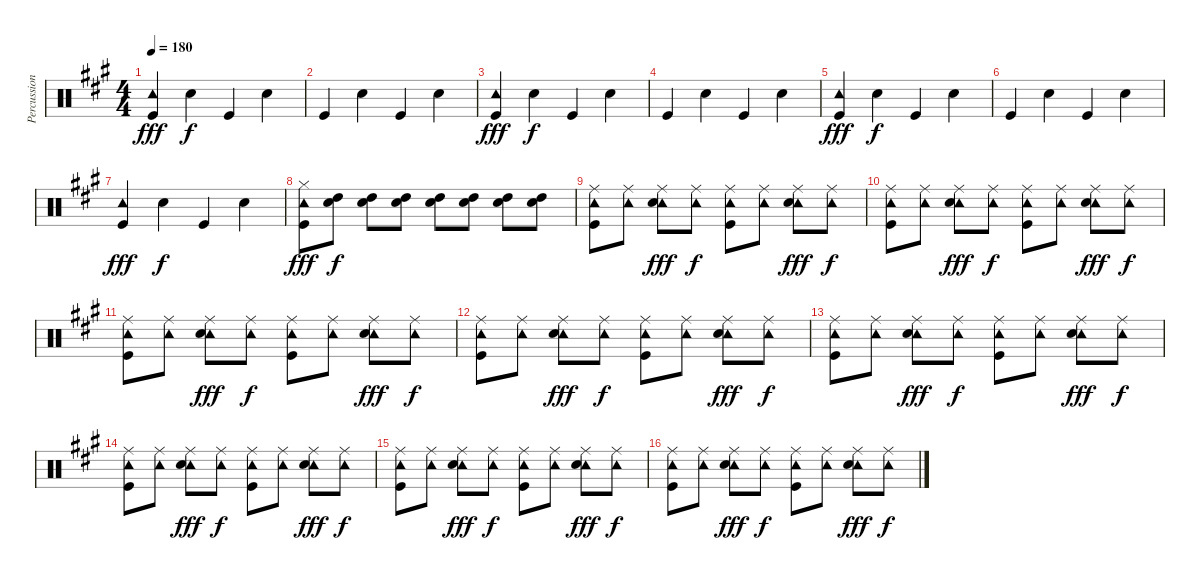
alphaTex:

\track ("Percussion" "Percussion") {instrument percussion}
\staff {score}
\articulation defaults
\ts (4 4)
\tempo 180
\clef neutral
\ks a
("Tambourine (hit)" "Kick (hit)").4{dy fff} "Snare (hit) 2".4{dy f} "Kick (hit)".4 "Snare (hit) 2".4 |
"Kick (hit)".4 "Snare (hit) 2".4 "Kick (hit)".4 "Snare (hit) 2".4 |
("Tambourine (hit)" "Kick (hit)").4{dy fff} "Snare (hit) 2".4{dy f} "Kick (hit)".4 "Snare (hit) 2".4 |
"Kick (hit)".4 "Snare (hit) 2".4 "Kick (hit)".4 "Snare (hit) 2".4 |
("Tambourine (hit)" "Kick (hit)").4{dy fff} "Snare (hit) 2".4{dy f} "Kick (hit)".4 "Snare (hit) 2".4 |
"Kick (hit)".4 "Snare (hit) 2".4 "Kick (hit)".4 "Snare (hit) 2".4 |
("Tambourine (hit)" "Kick (hit)").4{dy fff} "Snare (hit) 2".4{dy f} "Kick (hit)".4 "Snare (hit) 2".4 |
("Hi-Hat (closed)" "Tambourine (hit)" "Kick (hit)").8{dy fff} ("High Tom (hit)" "Snare (hit) 2").8{dy f} ("High Tom (hit)" "Snare (hit) 2").8 ("High Tom (hit)" "Snare (hit) 2").8 ("High Tom (hit)" "Snare (hit) 2").8 ("High Tom (hit)" "Snare (hit) 2").8 ("High Tom (hit)" "Snare (hit) 2").8 ("High Tom (hit)" "Snare (hit) 2").8 |
("Ride (middle)" "Tambourine (hit)" "Kick (hit)").8 ("Ride (middle)" "Tambourine (hit)").8 ("Ride (middle)" "Tambourine (hit)" "Snare (hit) 2").8{dy fff} ("Ride (middle)" "Tambourine (hit)").8{dy f} ("Ride (middle)" "Tambourine (hit)" "Kick (hit)").8 ("Ride (middle)" "Tambourine (hit)").8 ("Ride (middle)" "Tambourine (hit)" "Snare (hit) 2").8{dy fff} ("Ride (middle)" "Tambourine (hit)").8{dy f} |
("Ride (middle)" "Tambourine (hit)" "Kick (hit)").8 ("Ride (middle)" "Tambourine (hit)").8 ("Ride (middle)" "Tambourine (hit)" "Snare (hit) 2").8{dy fff} ("Ride (middle)" "Tambourine (hit)").8{dy f} ("Ride (middle)" "Tambourine (hit)" "Kick (hit)").8 ("Ride (middle)" "Tambourine (hit)").8 ("Ride (middle)" "Tambourine (hit)" "Snare (hit) 2").8{dy fff} ("Ride (middle)" "Tambourine (hit)").8{dy f} |
("Ride (middle)" "Tambourine (hit)" "Kick (hit)").8 ("Ride (middle)" "Tambourine (hit)").8 ("Ride (middle)" "Tambourine (hit)" "Snare (hit) 2").8{dy fff} ("Ride (middle)" "Tambourine (hit)").8{dy f} ("Ride (middle)" "Tambourine (hit)" "Kick (hit)").8 ("Ride (middle)" "Tambourine (hit)").8 ("Ride (middle)" "Tambourine (hit)" "Snare (hit) 2").8{dy fff} ("Ride (middle)" "Tambourine (hit)").8{dy f} |
("Ride (middle)" "Tambourine (hit)" "Kick (hit)").8 ("Ride (middle)" "Tambourine (hit)").8 ("Ride (middle)" "Tambourine (hit)" "Snare (hit) 2").8{dy fff} ("Ride (middle)" "Tambourine (hit)").8{dy f} ("Ride (middle)" "Tambourine (hit)" "Kick (hit)").8 ("Ride (middle)" "Tambourine (hit)").8 ("Ride (middle)" "Tambourine (hit)" "Snare (hit) 2").8{dy fff} ("Ride (middle)" "Tambourine (hit)").8{dy f} |
("Ride (middle)" "Tambourine (hit)" "Kick (hit)").8 ("Ride (middle)" "Tambourine (hit)").8 ("Ride (middle)" "Tambourine (hit)" "Snare (hit) 2").8{dy fff} ("Ride (middle)" "Tambourine (hit)").8{dy f} ("Ride (middle)" "Tambourine (hit)" "Kick (hit)").8 ("Ride (middle)" "Tambourine (hit)").8 ("Ride (middle)" "Tambourine (hit)" "Snare (hit) 2").8{dy fff} ("Ride (middle)" "Tambourine (hit)").8{dy f} |
("Ride (middle)" "Tambourine (hit)" "Kick (hit)").8 ("Ride (middle)" "Tambourine (hit)").8 ("Ride (middle)" "Tambourine (hit)" "Snare (hit) 2").8{dy fff} ("Ride (middle)" "Tambourine (hit)").8{dy f} ("Ride (middle)" "Tambourine (hit)" "Kick (hit)").8 ("Ride (middle)" "Tambourine (hit)").8 ("Ride (middle)" "Tambourine (hit)" "Snare (hit) 2").8{dy fff} ("Ride (middle)" "Tambourine (hit)").8{dy f} |
("Ride (middle)" "Tambourine (hit)" "Kick (hit)").8 ("Ride (middle)" "Tambourine (hit)").8 ("Ride (middle)" "Tambourine (hit)" "Snare (hit) 2").8{dy fff} ("Ride (middle)" "Tambourine (hit)").8{dy f} ("Ride (middle)" "Tambourine (hit)" "Kick (hit)").8 ("Ride (middle)" "Tambourine (hit)").8 ("Ride (middle)" "Tambourine (hit)" "Snare (hit) 2").8{dy fff} ("Ride (middle)" "Tambourine (hit)").8{dy f} |
("Ride (middle)" "Tambourine (hit)" "Kick (hit)").8 ("Ride (middle)" "Tambourine (hit)").8 ("Ride (middle)" "Tambourine (hit)" "Snare (hit) 2").8{dy fff} ("Ride (middle)" "Tambourine (hit)").8{dy f} ("Ride (middle)" "Tambourine (hit)" "Kick (hit)").8 ("Ride (middle)" "Tambourine (hit)").8 ("Ride (middle)" "Tambourine (hit)" "Snare (hit) 2").8{dy fff} ("Ride (middle)" "Tambourine (hit)").8{dy f}
